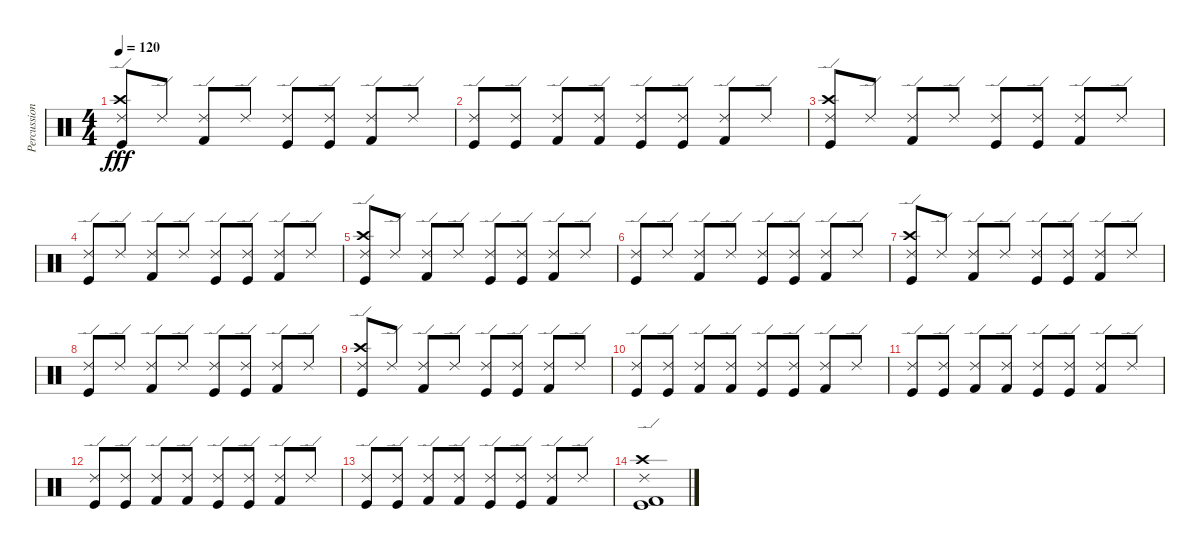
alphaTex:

\track ("Percussion" "Percussion") {instrument percussion}
\staff {score}
\articulation defaults
\ts (4 4)
\tempo 120
\clef neutral
\ks c
("Kick (hit)" "Crash high (hit)" "Ride (edge) 2").8{dy fff} "Ride (edge) 2".8 ("Kick (hit) 2" "Ride (edge) 2").8 "Ride (edge) 2".8 ("Kick (hit)" "Ride (edge) 2").8 ("Kick (hit)" "Ride (edge) 2").8 ("Kick (hit) 2" "Ride (edge) 2").8 "Ride (edge) 2".8 |
("Kick (hit)" "Ride (edge) 2").8 ("Kick (hit)" "Ride (edge) 2").8 ("Kick (hit) 2" "Ride (edge) 2").8 ("Kick (hit) 2" "Ride (edge) 2").8 ("Kick (hit)" "Ride (edge) 2").8 ("Kick (hit)" "Ride (edge) 2").8 ("Kick (hit) 2" "Ride (edge) 2").8 "Ride (edge) 2".8 |
("Kick (hit)" "Crash high (hit)" "Ride (edge) 2").8 "Ride (edge) 2".8 ("Kick (hit) 2" "Ride (edge) 2").8 "Ride (edge) 2".8 ("Kick (hit)" "Ride (edge) 2").8 ("Kick (hit)" "Ride (edge) 2").8 ("Kick (hit) 2" "Ride (edge) 2").8 "Ride (edge) 2".8 |
("Kick (hit)" "Ride (edge) 2").8 "Ride (edge) 2".8 ("Kick (hit) 2" "Ride (edge) 2").8 "Ride (edge) 2".8 ("Kick (hit)" "Ride (edge) 2").8 ("Kick (hit)" "Ride (edge) 2").8 ("Kick (hit) 2" "Ride (edge) 2").8 "Ride (edge) 2".8 |
("Kick (hit)" "Crash high (hit)" "Ride (edge) 2").8 "Ride (edge) 2".8 ("Kick (hit) 2" "Ride (edge) 2").8 "Ride (edge) 2".8 ("Kick (hit)" "Ride (edge) 2").8 ("Kick (hit)" "Ride (edge) 2").8 ("Kick (hit) 2" "Ride (edge) 2").8 "Ride (edge) 2".8 |
("Kick (hit)" "Ride (edge) 2").8 "Ride (edge) 2".8 ("Kick (hit) 2" "Ride (edge) 2").8 "Ride (edge) 2".8 ("Kick (hit)" "Ride (edge) 2").8 ("Kick (hit)" "Ride (edge) 2").8 ("Kick (hit) 2" "Ride (edge) 2").8 "Ride (edge) 2".8 |
("Kick (hit)" "Crash high (hit)" "Ride (edge) 2").8 "Ride (edge) 2".8 ("Kick (hit) 2" "Ride (edge) 2").8 "Ride (edge) 2".8 ("Kick (hit)" "Ride (edge) 2").8 ("Kick (hit)" "Ride (edge) 2").8 ("Kick (hit) 2" "Ride (edge) 2").8 "Ride (edge) 2".8 |
("Kick (hit)" "Ride (edge) 2").8 "Ride (edge) 2".8 ("Kick (hit) 2" "Ride (edge) 2").8 "Ride (edge) 2".8 ("Kick (hit)" "Ride (edge) 2").8 ("Kick (hit)" "Ride (edge) 2").8 ("Kick (hit) 2" "Ride (edge) 2").8 "Ride (edge) 2".8 |
("Kick (hit)" "Crash high (hit)" "Ride (edge) 2").8 "Ride (edge) 2".8 ("Kick (hit) 2" "Ride (edge) 2").8 "Ride (edge) 2".8 ("Kick (hit)" "Ride (edge) 2").8 ("Kick (hit)" "Ride (edge) 2").8 ("Kick (hit) 2" "Ride (edge) 2").8 "Ride (edge) 2".8 |
("Kick (hit)" "Ride (edge) 2").8 ("Kick (hit)" "Ride (edge) 2").8 ("Kick (hit) 2" "Ride (edge) 2").8 ("Kick (hit) 2" "Ride (edge) 2").8 ("Kick (hit)" "Ride (edge) 2").8 ("Kick (hit)" "Ride (edge) 2").8 ("Kick (hit) 2" "Ride (edge) 2").8 "Ride (edge) 2".8 |
("Kick (hit)" "Ride (edge) 2").8 ("Kick (hit)" "Ride (edge) 2").8 ("Kick (hit) 2" "Ride (edge) 2").8 ("Kick (hit) 2" "Ride (edge) 2").8 ("Kick (hit)" "Ride (edge) 2").8 ("Kick (hit)" "Ride (edge) 2").8 ("Kick (hit) 2" "Ride (edge) 2").8 "Ride (edge) 2".8 |
("Kick (hit)" "Ride (edge) 2").8 ("Kick (hit)" "Ride (edge) 2").8 ("Kick (hit) 2" "Ride (edge) 2").8 ("Kick (hit) 2" "Ride (edge) 2").8 ("Kick (hit)" "Ride (edge) 2").8 ("Kick (hit)" "Ride (edge) 2").8 ("Kick (hit) 2" "Ride (edge) 2").8 "Ride (edge) 2".8 |
("Kick (hit)" "Ride (edge) 2").8 ("Kick (hit)" "Ride (edge) 2").8 ("Kick (hit) 2" "Ride (edge) 2").8 ("Kick (hit) 2" "Ride (edge) 2").8 ("Kick (hit)" "Ride (edge) 2").8 ("Kick (hit)" "Ride (edge) 2").8 ("Kick (hit) 2" "Ride (edge) 2").8 "Ride (edge) 2".8 |
("Kick (hit)" "Kick (hit) 2" "Ride (edge) 2" "Crash high (hit)").1
